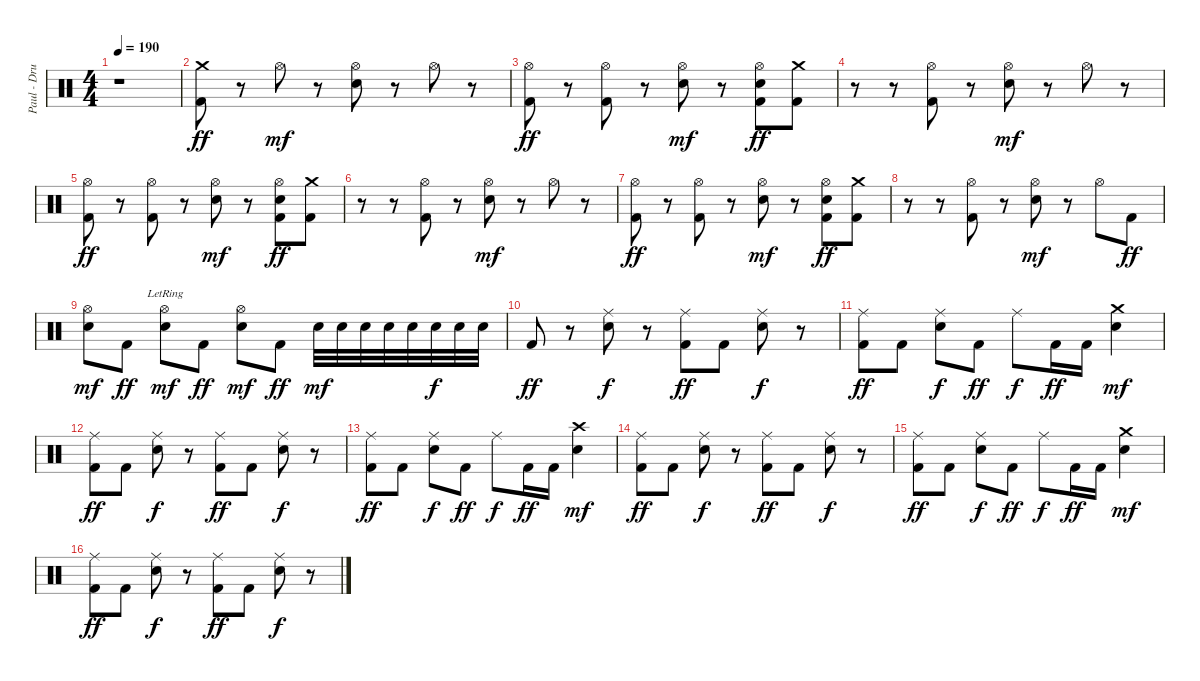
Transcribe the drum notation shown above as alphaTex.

\track ("Paul - Drums" "Paul - Dru") {instrument percussion}
\staff {score}
\articulation defaults
\ts (4 4)
\tempo 190
\clef neutral
\ks c
r.1{dy ff} |
("Crash medium (hit)" "Kick (hit) 2").8 r.8 "Hi-Hat (open)".8{dy mf} r.8 ("Hi-Hat (open)" "Electric Snare (hit)").8 r.8 "Hi-Hat (open)".8 r.8 |
("Hi-Hat (open)" "Kick (hit) 2").8{dy ff} r.8 ("Hi-Hat (open)" "Kick (hit) 2").8 r.8 ("Hi-Hat (open)" "Electric Snare (hit)").8{dy mf} r.8 ("Hi-Hat (open)" "Electric Snare (hit)" "Kick (hit) 2").8{dy ff} ("Crash medium (hit)" "Kick (hit) 2").8 |
r.8 r.8 ("Hi-Hat (open)" "Kick (hit) 2").8 r.8 ("Hi-Hat (open)" "Electric Snare (hit)").8{dy mf} r.8 "Hi-Hat (open)".8 r.8 |
("Hi-Hat (open)" "Kick (hit) 2").8{dy ff} r.8 ("Hi-Hat (open)" "Kick (hit) 2").8 r.8 ("Hi-Hat (open)" "Electric Snare (hit)").8{dy mf} r.8 ("Hi-Hat (open)" "Electric Snare (hit)" "Kick (hit) 2").8{dy ff} ("Crash medium (hit)" "Kick (hit) 2").8 |
r.8 r.8 ("Hi-Hat (open)" "Kick (hit) 2").8 r.8 ("Hi-Hat (open)" "Electric Snare (hit)").8{dy mf} r.8 "Hi-Hat (open)".8 r.8 |
("Hi-Hat (open)" "Kick (hit) 2").8{dy ff} r.8 ("Hi-Hat (open)" "Kick (hit) 2").8 r.8 ("Hi-Hat (open)" "Electric Snare (hit)").8{dy mf} r.8 ("Hi-Hat (open)" "Electric Snare (hit)" "Kick (hit) 2").8{dy ff} ("Crash medium (hit)" "Kick (hit) 2").8 |
r.8 r.8 ("Hi-Hat (open)" "Kick (hit) 2").8 r.8 ("Hi-Hat (open)" "Electric Snare (hit)").8{dy mf} r.8 "Hi-Hat (open)".8 "Kick (hit) 2".8{dy ff} |
("Hi-Hat (open)" "Electric Snare (hit)").8{dy mf} "Kick (hit) 2".8{dy ff} ("Hi-Hat (open)"{lr} "Electric Snare (hit)").8{dy mf} "Kick (hit) 2".8{dy ff} ("Hi-Hat (open)" "Electric Snare (hit)").8{dy mf} "Kick (hit) 2".8{dy ff} "Electric Snare (hit)".32{dy mf} "Electric Snare (hit)".32 "Electric Snare (hit)".32 "Electric Snare (hit)".32 "Electric Snare (hit)".32 "Electric Snare (hit)".32{dy f} "Electric Snare (hit)".32 "Electric Snare (hit)".32 |
"Kick (hit) 2".8{dy ff} r.8 ("Ride (middle)" "Electric Snare (hit)").8{dy f} r.8 ("Ride (middle)" "Kick (hit) 2").8{dy ff} "Kick (hit) 2".8 ("Ride (middle)" "Electric Snare (hit)").8{dy f} r.8 |
("Ride (middle)" "Kick (hit) 2").8{dy ff} "Kick (hit) 2".8 ("Ride (middle)" "Electric Snare (hit)").8{dy f} "Kick (hit) 2".8{dy ff} "Ride (middle)".8{dy f} "Kick (hit) 2".16{dy ff} "Kick (hit) 2".16 ("Crash medium (hit)" "Electric Snare (hit)").4{dy mf} |
("Ride (middle)" "Kick (hit) 2").8{dy ff} "Kick (hit) 2".8 ("Ride (middle)" "Electric Snare (hit)").8{dy f} r.8 ("Ride (middle)" "Kick (hit) 2").8{dy ff} "Kick (hit) 2".8 ("Ride (middle)" "Electric Snare (hit)").8{dy f} r.8 |
("Ride (middle)" "Kick (hit) 2").8{dy ff} "Kick (hit) 2".8 ("Ride (middle)" "Electric Snare (hit)").8{dy f} "Kick (hit) 2".8{dy ff} "Ride (middle)".8{dy f} "Kick (hit) 2".16{dy ff} "Kick (hit) 2".16 ("Crash high (hit)" "Electric Snare (hit)").4{dy mf} |
("Ride (middle)" "Kick (hit) 2").8{dy ff} "Kick (hit) 2".8 ("Ride (middle)" "Electric Snare (hit)").8{dy f} r.8 ("Ride (middle)" "Kick (hit) 2").8{dy ff} "Kick (hit) 2".8 ("Ride (middle)" "Electric Snare (hit)").8{dy f} r.8 |
("Ride (middle)" "Kick (hit) 2").8{dy ff} "Kick (hit) 2".8 ("Ride (middle)" "Electric Snare (hit)").8{dy f} "Kick (hit) 2".8{dy ff} "Ride (middle)".8{dy f} "Kick (hit) 2".16{dy ff} "Kick (hit) 2".16 ("Crash medium (hit)" "Electric Snare (hit)").4{dy mf} |
("Ride (middle)" "Kick (hit) 2").8{dy ff} "Kick (hit) 2".8 ("Ride (middle)" "Electric Snare (hit)").8{dy f} r.8 ("Ride (middle)" "Kick (hit) 2").8{dy ff} "Kick (hit) 2".8 ("Ride (middle)" "Electric Snare (hit)").8{dy f} r.8
